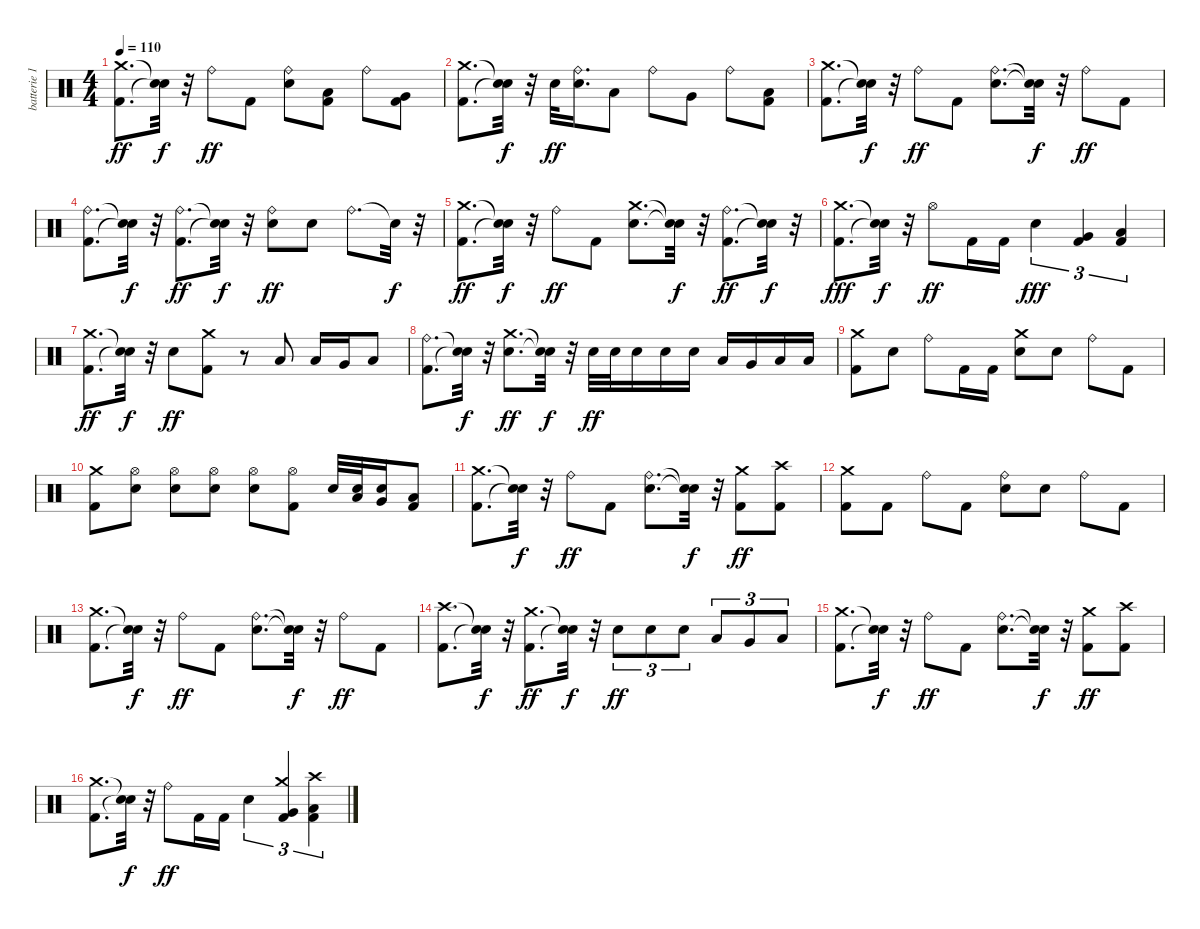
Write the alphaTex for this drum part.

\track ("batterie 1" "batterie 1") {instrument percussion}
\staff {score}
\articulation defaults
\ts (4 4)
\tempo 110
\clef neutral
\ks c
("Kick (hit) 2" "Crash medium (hit)").8{d dy ff} ("Snare (hit)"{t} "Snare (hit)"{t}).32{dy f} r.32 "Ride (bell)".8{dy ff} "Kick (hit) 2".8 ("Electric Snare (hit)" "Ride (bell)").8 ("Kick (hit) 2" "Low Tom (hit)").8 "Ride (bell)".8 ("Kick (hit) 2" "Very Low Tom (hit)").8 |
("Kick (hit) 2" "Crash medium (hit)").8{d} ("Snare (hit)"{t} "Snare (hit)"{t}).32{dy f} r.32 "Electric Snare (hit)".32{dy ff} ("Electric Snare (hit)" "Ride (bell)").16{d} "Low Tom (hit)".8 "Ride (bell)".8 "Very Low Tom (hit)".8 "Ride (bell)".8 ("Kick (hit) 2" "Low Floor Tom (hit)").8 |
("Kick (hit) 2" "Crash medium (hit)").8{d} ("Snare (hit)"{t} "Snare (hit)"{t}).32{dy f} r.32 "Ride (bell)".8{dy ff} "Kick (hit) 2".8 ("Electric Snare (hit)" "Ride (bell)").8{d} ("Snare (hit)"{t} "Snare (hit)"{t}).32{dy f} r.32 "Ride (bell)".8{dy ff} "Kick (hit) 2".8 |
("Kick (hit) 2" "Ride (bell)").8{d} ("Snare (hit)"{t} "Snare (hit)"{t}).32{dy f} r.32 ("Kick (hit) 2" "Ride (bell)").8{d dy ff} ("Snare (hit)"{t} "Snare (hit)"{t}).32{dy f} r.32 ("Electric Snare (hit)" "Ride (bell)").8{dy ff} "Electric Snare (hit)".8 "Ride (bell)".8{d} "Snare (hit)"{t}.32{dy f} r.32 |
("Kick (hit) 2" "Crash medium (hit)").8{d dy ff} ("Snare (hit)"{t} "Snare (hit)"{t}).32{dy f} r.32 "Ride (bell)".8{dy ff} "Kick (hit) 2".8 ("Electric Snare (hit)" "Crash medium (hit)").8{d} ("Snare (hit)"{t} "Snare (hit)"{t}).32{dy f} r.32 ("Kick (hit) 2" "Ride (bell)").8{d dy ff} ("Snare (hit)"{t} "Snare (hit)"{t}).32{dy f} r.32 |
("Kick (hit) 2" "Crash medium (hit)").8{d dy fff} ("Snare (hit)"{t} "Snare (hit)"{t}).32{dy f} r.32 "Hi-Hat (open)".8{dy ff} "Kick (hit) 2".16 "Kick (hit) 2".16 "Electric Snare (hit)".4{tu (3 2) dy fff} ("Kick (hit) 2" "Very Low Tom (hit)").4{tu (3 2)} ("Kick (hit) 2" "Low Floor Tom (hit)").4{tu (3 2)} |
("Kick (hit) 2" "Crash medium (hit)").8{d dy ff} ("Snare (hit)"{t} "Snare (hit)"{t}).32{dy f} r.32 "Electric Snare (hit)".8{dy ff} ("Kick (hit) 2" "Crash medium (hit)").8 r.8 "Low Tom (hit)".8 "Low Tom (hit)".16 "Very Low Tom (hit)".16 "Low Floor Tom (hit)".8 |
("Kick (hit) 2" "Ride (bell)").8{d} ("Snare (hit)"{t} "Snare (hit)"{t}).32{dy f} r.32 ("Electric Snare (hit)" "Crash medium (hit)").8{d dy ff} ("Snare (hit)"{t} "Snare (hit)"{t}).32{dy f} r.32 "Electric Snare (hit)".32{dy ff} "Electric Snare (hit)".32 "Electric Snare (hit)".16 "Electric Snare (hit)".16 "Electric Snare (hit)".16 "Low Tom (hit)".16 "Very Low Tom (hit)".16 "Low Floor Tom (hit)".16 "Low Floor Tom (hit)".16 |
("Kick (hit) 2" "Crash medium (hit)").8 "Electric Snare (hit)".8 "Ride (bell)".8 "Kick (hit) 2".16 "Kick (hit) 2".16 ("Electric Snare (hit)" "Crash medium (hit)").8 "Electric Snare (hit)".8 "Ride (bell)".8 "Kick (hit) 2".8 |
("Kick (hit) 2" "Crash medium (hit)").8 ("Electric Snare (hit)" "Hi-Hat (open)").8 ("Electric Snare (hit)" "Hi-Hat (open)").8 ("Electric Snare (hit)" "Hi-Hat (open)").8 ("Electric Snare (hit)" "Hi-Hat (open)").8 ("Kick (hit) 2" "Hi-Hat (open)").8 "Electric Snare (hit)".32 ("Electric Snare (hit)" "Low Tom (hit)").32 ("Electric Snare (hit)" "Very Low Tom (hit)").16 ("Kick (hit) 2" "Low Floor Tom (hit)").8 |
("Kick (hit) 2" "Crash medium (hit)").8{d} ("Snare (hit)"{t} "Snare (hit)"{t}).32{dy f} r.32 "Ride (bell)".8{dy ff} "Kick (hit) 2".8 ("Electric Snare (hit)" "Ride (bell)").8{d} ("Snare (hit)"{t} "Snare (hit)"{t}).32{dy f} r.32 ("Kick (hit) 2" "Crash medium (hit)").8{dy ff} ("Kick (hit) 2" "Crash high (hit)").8 |
("Kick (hit) 2" "Crash medium (hit)").8 "Kick (hit) 2".8 "Ride (bell)".8 "Kick (hit) 2".8 ("Electric Snare (hit)" "Ride (bell)").8 "Electric Snare (hit)".8 "Ride (bell)".8 "Kick (hit) 2".8 |
("Kick (hit) 2" "Crash medium (hit)").8{d} ("Snare (hit)"{t} "Snare (hit)"{t}).32{dy f} r.32 "Ride (bell)".8{dy ff} "Kick (hit) 2".8 ("Electric Snare (hit)" "Ride (bell)").8{d} ("Snare (hit)"{t} "Snare (hit)"{t}).32{dy f} r.32 "Ride (bell)".8{dy ff} "Kick (hit) 2".8 |
("Kick (hit) 2" "Crash high (hit)").8{d} ("Snare (hit)"{t} "Snare (hit)"{t}).32{dy f} r.32 ("Kick (hit) 2" "Crash medium (hit)").8{d dy ff} ("Snare (hit)"{t} "Snare (hit)"{t}).32{dy f} r.32 "Electric Snare (hit)".8{tu (3 2) dy ff} "Electric Snare (hit)".8{tu (3 2)} "Electric Snare (hit)".8{tu (3 2)} "Low Tom (hit)".8{tu (3 2)} "Very Low Tom (hit)".8{tu (3 2)} "Low Floor Tom (hit)".8{tu (3 2)} |
("Kick (hit) 2" "Crash medium (hit)").8{d} ("Snare (hit)"{t} "Snare (hit)"{t}).32{dy f} r.32 "Ride (bell)".8{dy ff} "Kick (hit) 2".8 ("Electric Snare (hit)" "Ride (bell)").8{d} ("Snare (hit)"{t} "Snare (hit)"{t}).32{dy f} r.32 ("Kick (hit) 2" "Crash medium (hit)").8{dy ff} ("Kick (hit) 2" "Crash high (hit)").8 |
("Kick (hit) 2" "Crash medium (hit)").8{d} ("Snare (hit)"{t} "Snare (hit)"{t}).32{dy f} r.32 "Ride (bell)".8{dy ff} "Kick (hit) 2".16 "Kick (hit) 2".16 "Electric Snare (hit)".4{tu (3 2)} ("Kick (hit) 2" "Very Low Tom (hit)" "Crash medium (hit)").4{tu (3 2)} ("Kick (hit) 2" "Low Floor Tom (hit)" "Crash high (hit)").4{tu (3 2)}
